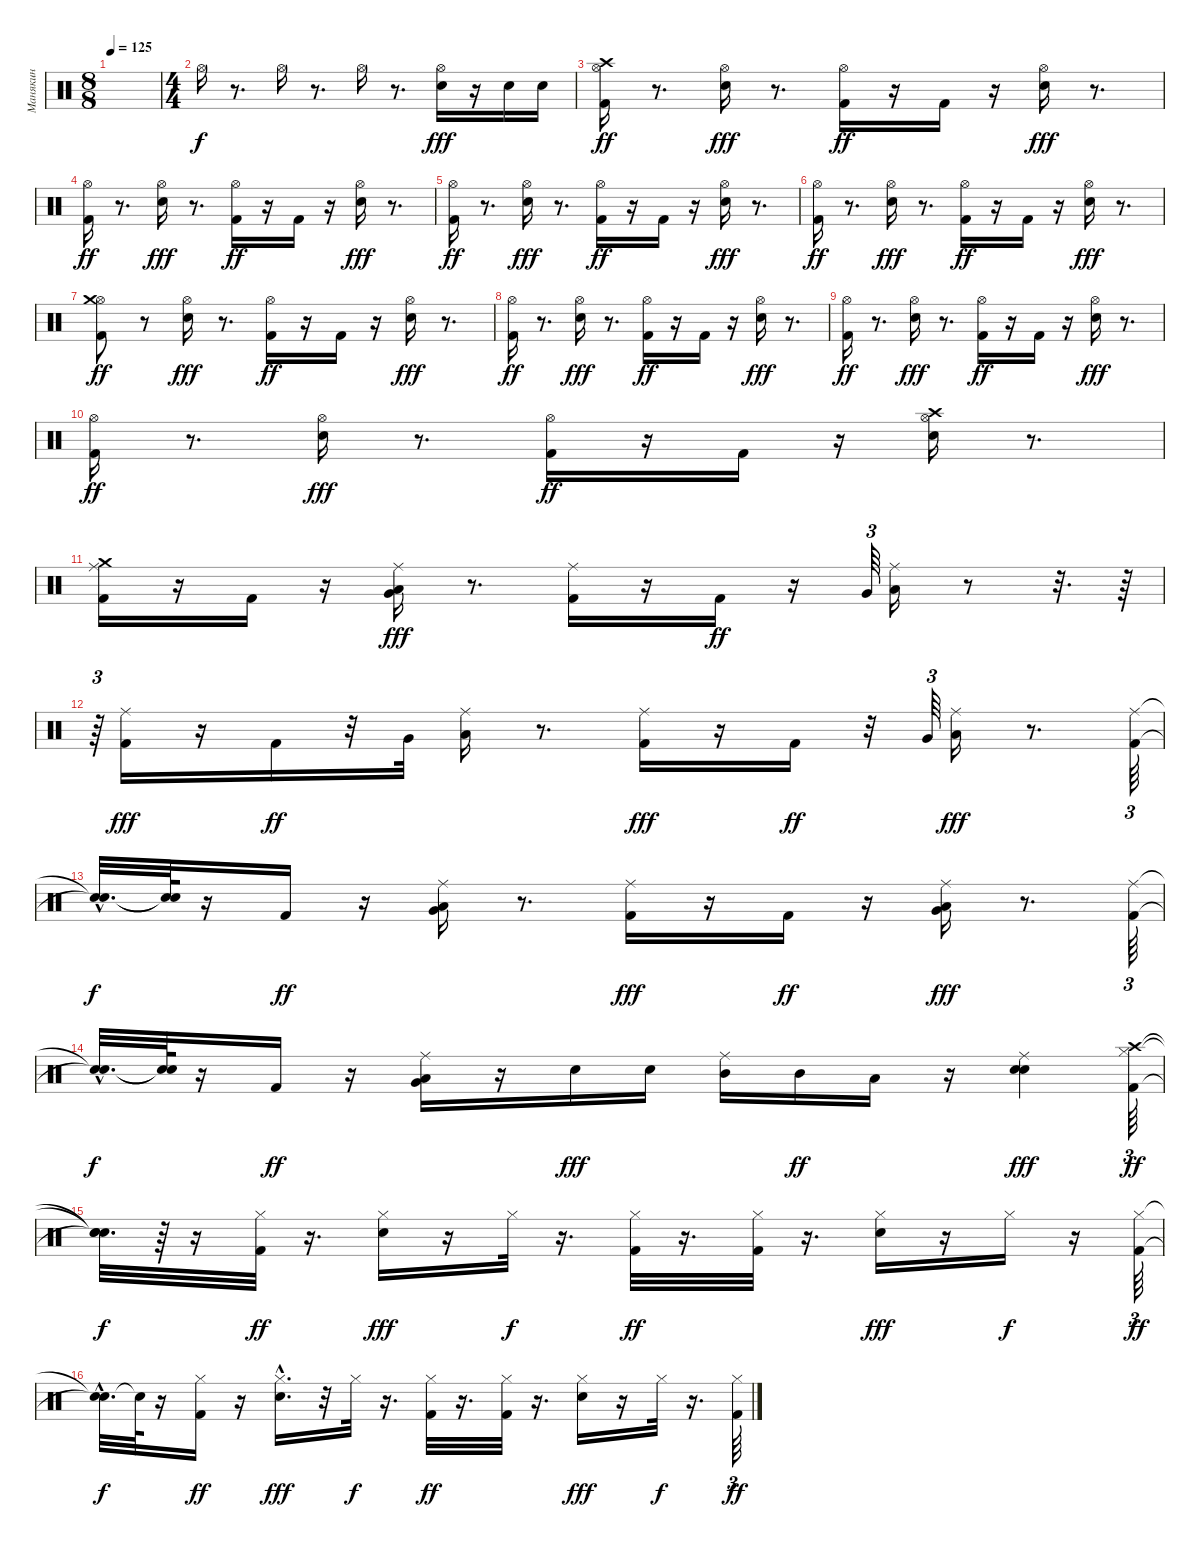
\track ("Манякин" "Манякин") {instrument percussion}
\staff {score}
\articulation defaults
\ts (8 8)
\tempo 125
\clef neutral
\ks c
|
\ts (4 4)
"Hi-Hat (open)".16 r.8{d} "Hi-Hat (open)".16 r.8{d} "Hi-Hat (open)".16 r.8{d} ("Snare (hit) 2" "Hi-Hat (open)").16{dy fff} r.16 "Snare (hit) 2".16 "Snare (hit) 2".16 |
("Kick (hit) 2" "Hi-Hat (open)" "Crash high (hit)").16{dy ff} r.8{d} ("Snare (hit) 2" "Hi-Hat (open)").16{dy fff} r.8{d} ("Kick (hit) 2" "Hi-Hat (open)").16{dy ff} r.16 "Kick (hit) 2".16 r.16 ("Snare (hit) 2" "Hi-Hat (open)").16{dy fff} r.8{d} |
("Kick (hit) 2" "Hi-Hat (open)").16{dy ff} r.8{d} ("Snare (hit) 2" "Hi-Hat (open)").16{dy fff} r.8{d} ("Kick (hit) 2" "Hi-Hat (open)").16{dy ff} r.16 "Kick (hit) 2".16 r.16 ("Snare (hit) 2" "Hi-Hat (open)").16{dy fff} r.8{d} |
("Kick (hit) 2" "Hi-Hat (open)").16{dy ff} r.8{d} ("Snare (hit) 2" "Hi-Hat (open)").16{dy fff} r.8{d} ("Kick (hit) 2" "Hi-Hat (open)").16{dy ff} r.16 "Kick (hit) 2".16 r.16 ("Snare (hit) 2" "Hi-Hat (open)").16{dy fff} r.8{d} |
("Kick (hit) 2" "Hi-Hat (open)").16{dy ff} r.8{d} ("Snare (hit) 2" "Hi-Hat (open)").16{dy fff} r.8{d} ("Kick (hit) 2" "Hi-Hat (open)").16{dy ff} r.16 "Kick (hit) 2".16 r.16 ("Snare (hit) 2" "Hi-Hat (open)").16{dy fff} r.8{d} |
("Kick (hit) 2" "Hi-Hat (open)" "Crash medium (hit)").8{dy ff} r.8 ("Snare (hit) 2" "Hi-Hat (open)").16{dy fff} r.8{d} ("Kick (hit) 2" "Hi-Hat (open)").16{dy ff} r.16 "Kick (hit) 2".16 r.16 ("Snare (hit) 2" "Hi-Hat (open)").16{dy fff} r.8{d} |
("Kick (hit) 2" "Hi-Hat (open)").16{dy ff} r.8{d} ("Snare (hit) 2" "Hi-Hat (open)").16{dy fff} r.8{d} ("Kick (hit) 2" "Hi-Hat (open)").16{dy ff} r.16 "Kick (hit) 2".16 r.16 ("Snare (hit) 2" "Hi-Hat (open)").16{dy fff} r.8{d} |
("Kick (hit) 2" "Hi-Hat (open)").16{dy ff} r.8{d} ("Snare (hit) 2" "Hi-Hat (open)").16{dy fff} r.8{d} ("Kick (hit) 2" "Hi-Hat (open)").16{dy ff} r.16 "Kick (hit) 2".16 r.16 ("Snare (hit) 2" "Hi-Hat (open)").16{dy fff} r.8{d} |
("Kick (hit) 2" "Hi-Hat (open)").16{dy ff} r.8{d} ("Snare (hit) 2" "Hi-Hat (open)").16{dy fff} r.8{d} ("Kick (hit) 2" "Hi-Hat (open)").16{dy ff} r.16 "Kick (hit) 2".16 r.16 ("Snare (hit) 2" "Hi-Hat (open)" "Crash high (hit)").16 r.8{d} |
("Kick (hit) 2" "Ride (middle)" "Crash medium (hit)").16 r.16 "Kick (hit) 2".16 r.16 ("Very Low Tom (hit)" "Low Tom (hit)" "Ride (middle)").16{dy fff} r.8{d} ("Kick (hit) 2" "Ride (middle)").16 r.16 "Kick (hit) 2".16{dy ff} r.16 "Very Low Tom (hit)".64{tu (3 2)} ("Ride (middle)" "Low Tom (hit)").16 r.8 r.32{d} r.64 |
r.64{tu (3 2)} ("Kick (hit) 2" "Ride (middle)").16{dy fff} r.16 "Kick (hit) 2".16{dy ff} r.32 "Very Low Tom (hit)".32 ("Ride (middle)" "Low Tom (hit)").16 r.8{d} ("Kick (hit) 2" "Ride (middle)").16{dy fff} r.16 "Kick (hit) 2".16{dy ff} r.32 "Very Low Tom (hit)".64{tu (3 2)} ("Low Tom (hit)" "Ride (middle)").16{dy fff} r.8{d} ("Kick (hit) 2" "Ride (middle)").64{tu (3 2)} |
("Snare (hit)"{hac t} "Snare (hit)"{hac t}).32{d dy f} ("Snare (hit)"{t} "Snare (hit)"{t}).64 r.16 "Kick (hit) 2".16{dy ff} r.16 ("Very Low Tom (hit)" "Ride (middle)" "Low Tom (hit)").16 r.8{d} ("Kick (hit) 2" "Ride (middle)").16{dy fff} r.16 "Kick (hit) 2".16{dy ff} r.16 ("Very Low Tom (hit)" "Low Tom (hit)" "Ride (middle)").16{dy fff} r.8{d} ("Kick (hit) 2" "Ride (middle)").64{tu (3 2)} |
("Snare (hit)"{hac t} "Snare (hit)"{hac t}).32{d dy f} ("Snare (hit)"{t} "Snare (hit)"{t}).64 r.16 "Kick (hit) 2".16{dy ff} r.16 ("Very Low Tom (hit)" "Ride (middle)" "Low Tom (hit)").16 r.16 "Snare (hit) 2".16{dy fff} "Snare (hit) 2".16 ("Mid Tom (hit)" "Ride (middle)").16 "Mid Tom (hit)".16{dy ff} "Low Tom (hit)".16 r.16 ("Snare (hit) 2" "Snare (hit) 2" "Ride (middle)").4{dy fff} ("Kick (hit) 2" "Hi-Hat (closed)" "Crash high (hit)").64{tu (3 2) dy ff} |
("Snare (hit)"{t} "Snare (hit)"{t} "Snare (hit)"{t}).32{d dy f} r.64 r.16 ("Kick (hit) 2" "Hi-Hat (closed)").32{dy ff} r.16{d} ("Snare (hit) 2" "Hi-Hat (closed)").16{dy fff} r.16 "Hi-Hat (closed)".32{dy f} r.16{d} ("Kick (hit) 2" "Hi-Hat (closed)").32{dy ff} r.16{d} ("Kick (hit) 2" "Hi-Hat (closed)").32 r.16{d} ("Snare (hit) 2" "Hi-Hat (closed)").16{dy fff} r.16 "Hi-Hat (closed)".16{dy f} r.16 ("Kick (hit) 2" "Hi-Hat (closed)").64{tu (3 2) dy ff} |
("Snare (hit)"{t} "Snare (hit)"{hac t}).32{d dy f} "Snare (hit)"{t}.64 r.16 ("Kick (hit) 2" "Hi-Hat (closed)").16{dy ff} r.16 ("Snare (hit) 2"{hac} "Hi-Hat (closed)").16{d dy fff} r.32 "Hi-Hat (closed)".32{dy f} r.16{d} ("Kick (hit) 2" "Hi-Hat (closed)").32{dy ff} r.16{d} ("Kick (hit) 2" "Hi-Hat (closed)").32 r.16{d} ("Snare (hit) 2" "Hi-Hat (closed)").16{dy fff} r.16 "Hi-Hat (closed)".32{dy f} r.16{d} ("Kick (hit) 2" "Hi-Hat (closed)").64{tu (3 2) dy ff}
